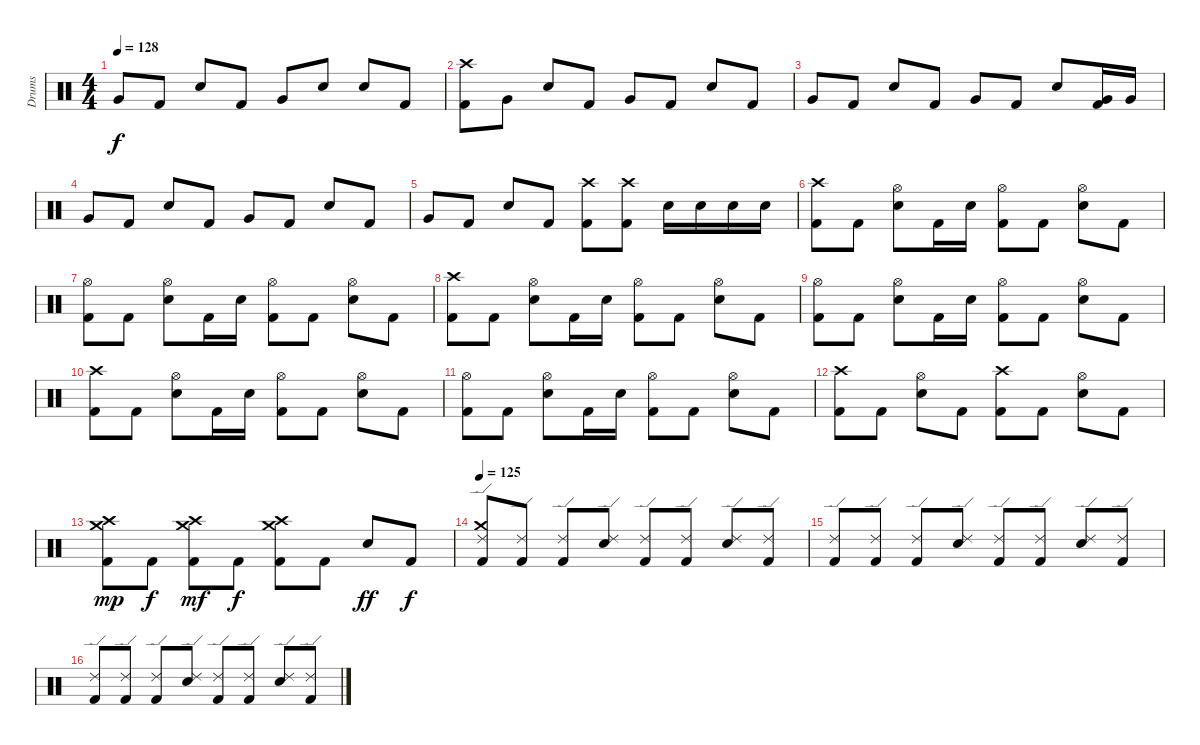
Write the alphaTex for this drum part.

\track ("Drums" "Drums") {instrument percussion}
\staff {score}
\articulation defaults
\ts (4 4)
\tempo 128
\clef neutral
\ks c "Very Low Tom (hit)".8{dy f} "Kick (hit) 2".8 "Electric Snare (hit)".8 "Kick (hit) 2".8 "Very Low Tom (hit)".8 "Electric Snare (hit)".8 "Electric Snare (hit)".8 "Kick (hit) 2".8
|
("Crash high (hit)" "Kick (hit) 2").8 "Very Low Tom (hit)".8 "Electric Snare (hit)".8 "Kick (hit) 2".8 "Very Low Tom (hit)".8 "Kick (hit) 2".8 "Electric Snare (hit)".8 "Kick (hit) 2".8 |
"Very Low Tom (hit)".8 "Kick (hit) 2".8 "Electric Snare (hit)".8 "Kick (hit) 2".8 "Very Low Tom (hit)".8 "Kick (hit) 2".8 "Electric Snare (hit)".8 ("Very Low Tom (hit)" "Kick (hit) 2").16 "Very Low Tom (hit)".16 |
"Very Low Tom (hit)".8 "Kick (hit) 2".8 "Electric Snare (hit)".8 "Kick (hit) 2".8 "Very Low Tom (hit)".8 "Kick (hit) 2".8 "Electric Snare (hit)".8 "Kick (hit) 2".8 |
"Very Low Tom (hit)".8 "Kick (hit) 2".8 "Electric Snare (hit)".8 "Kick (hit) 2".8 ("Crash high (hit)" "Kick (hit) 2").8 ("Crash high (hit)" "Kick (hit) 2").8 "Electric Snare (hit)".16 "Electric Snare (hit)".16 "Electric Snare (hit)".16 "Electric Snare (hit)".16 |
("Crash high (hit)" "Kick (hit) 2").8 "Kick (hit) 2".8 ("Hi-Hat (open)" "Electric Snare (hit)").8 "Kick (hit) 2".16 "Electric Snare (hit)".16 ("Hi-Hat (open)" "Kick (hit) 2").8 "Kick (hit) 2".8 ("Hi-Hat (open)" "Electric Snare (hit)").8 "Kick (hit) 2".8 |
("Hi-Hat (open)" "Kick (hit) 2").8 "Kick (hit) 2".8 ("Hi-Hat (open)" "Electric Snare (hit)").8 "Kick (hit) 2".16 "Electric Snare (hit)".16 ("Hi-Hat (open)" "Kick (hit) 2").8 "Kick (hit) 2".8 ("Hi-Hat (open)" "Electric Snare (hit)").8 "Kick (hit) 2".8 |
("Crash high (hit)" "Kick (hit) 2").8 "Kick (hit) 2".8 ("Hi-Hat (open)" "Electric Snare (hit)").8 "Kick (hit) 2".16 "Electric Snare (hit)".16 ("Hi-Hat (open)" "Kick (hit) 2").8 "Kick (hit) 2".8 ("Hi-Hat (open)" "Electric Snare (hit)").8 "Kick (hit) 2".8 |
("Hi-Hat (open)" "Kick (hit) 2").8 "Kick (hit) 2".8 ("Hi-Hat (open)" "Electric Snare (hit)").8 "Kick (hit) 2".16 "Electric Snare (hit)".16 ("Hi-Hat (open)" "Kick (hit) 2").8 "Kick (hit) 2".8 ("Hi-Hat (open)" "Electric Snare (hit)").8 "Kick (hit) 2".8 |
("Crash high (hit)" "Kick (hit) 2").8 "Kick (hit) 2".8 ("Hi-Hat (open)" "Electric Snare (hit)").8 "Kick (hit) 2".16 "Electric Snare (hit)".16 ("Hi-Hat (open)" "Kick (hit) 2").8 "Kick (hit) 2".8 ("Hi-Hat (open)" "Electric Snare (hit)").8 "Kick (hit) 2".8 |
("Hi-Hat (open)" "Kick (hit) 2").8 "Kick (hit) 2".8 ("Hi-Hat (open)" "Electric Snare (hit)").8 "Kick (hit) 2".16 "Electric Snare (hit)".16 ("Hi-Hat (open)" "Kick (hit) 2").8 "Kick (hit) 2".8 ("Hi-Hat (open)" "Electric Snare (hit)").8 "Kick (hit) 2".8 |
("Crash high (hit)" "Kick (hit) 2").8 "Kick (hit) 2".8 ("Hi-Hat (open)" "Electric Snare (hit)").8 "Kick (hit) 2".8 ("Crash high (hit)" "Kick (hit) 2").8 "Kick (hit) 2".8 ("Hi-Hat (open)" "Electric Snare (hit)").8 "Kick (hit) 2".8 |
("Crash high (hit)" "Crash medium (hit)" "Kick (hit) 2").8{dy mp} "Kick (hit) 2".8{dy f} ("Crash high (hit)" "Crash medium (hit)" "Kick (hit) 2").8{dy mf} "Kick (hit) 2".8{dy f} ("Crash high (hit)" "Crash medium (hit)" "Kick (hit) 2").8 "Kick (hit) 2".8 "Electric Snare (hit)".8{dy ff} "Kick (hit) 2".8{dy f} |
\tempo 125
("Ride (edge) 2" "Crash medium (hit)" "Kick (hit) 2").8 ("Ride (edge) 2" "Kick (hit) 2").8 ("Ride (edge) 2" "Kick (hit) 2").8 ("Ride (edge) 2" "Electric Snare (hit)").8 ("Ride (edge) 2" "Kick (hit) 2").8 ("Ride (edge) 2" "Kick (hit) 2").8 ("Ride (edge) 2" "Electric Snare (hit)").8 ("Ride (edge) 2" "Kick (hit) 2").8 |
("Ride (edge) 2" "Kick (hit) 2").8 ("Ride (edge) 2" "Kick (hit) 2").8 ("Ride (edge) 2" "Kick (hit) 2").8 ("Ride (edge) 2" "Electric Snare (hit)").8 ("Ride (edge) 2" "Kick (hit) 2").8 ("Ride (edge) 2" "Kick (hit) 2").8 ("Ride (edge) 2" "Electric Snare (hit)").8 ("Ride (edge) 2" "Kick (hit) 2").8 |
("Ride (edge) 2" "Kick (hit) 2").8 ("Ride (edge) 2" "Kick (hit) 2").8 ("Ride (edge) 2" "Kick (hit) 2").8 ("Ride (edge) 2" "Electric Snare (hit)").8 ("Ride (edge) 2" "Kick (hit) 2").8 ("Ride (edge) 2" "Kick (hit) 2").8 ("Ride (edge) 2" "Electric Snare (hit)").8 ("Ride (edge) 2" "Kick (hit) 2").8
